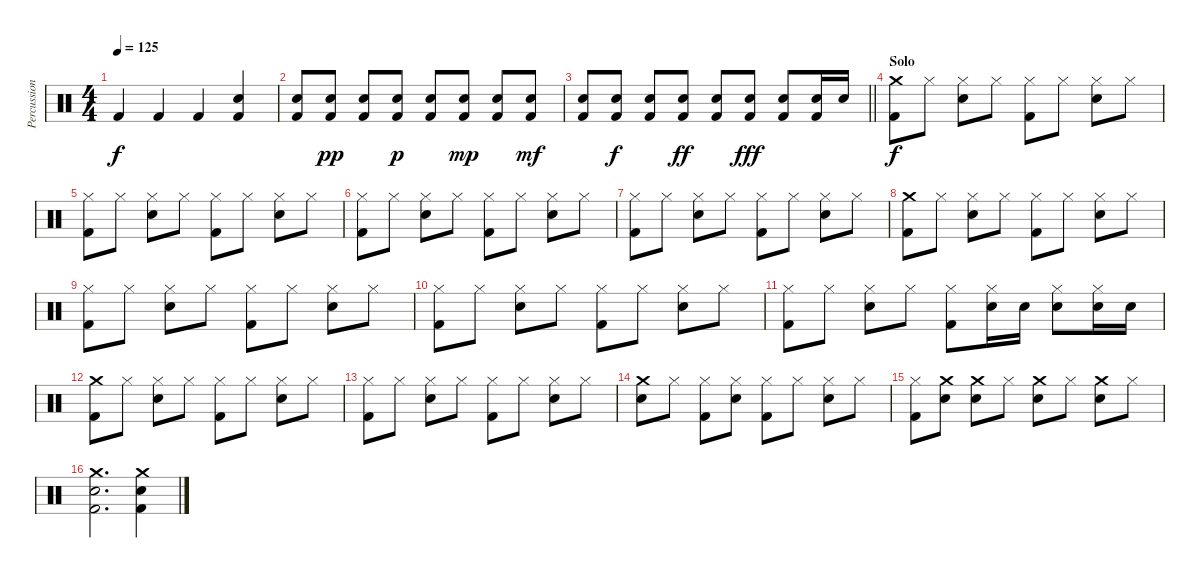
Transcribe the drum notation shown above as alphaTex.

\track ("Percussion" "Percussion") {instrument percussion}
\staff {score}
\articulation defaults
\ts (4 4)
\tempo 125
\clef neutral
\ks c "Kick (hit) 2".4{dy f} "Kick (hit) 2".4 "Kick (hit) 2".4
("Snare (hit) 2" "Kick (hit) 2").4 |
("Snare (hit) 2" "Kick (hit) 2").8 ("Snare (hit) 2" "Kick (hit) 2").8{dy pp} ("Snare (hit) 2" "Kick (hit) 2").8 ("Snare (hit) 2" "Kick (hit) 2").8{dy p} ("Snare (hit) 2" "Kick (hit) 2").8 ("Snare (hit) 2" "Kick (hit) 2").8{dy mp} ("Snare (hit) 2" "Kick (hit) 2").8 ("Snare (hit) 2" "Kick (hit) 2").8{dy mf} |
\barLineRight lightlight
("Snare (hit) 2" "Kick (hit) 2").8 ("Snare (hit) 2" "Kick (hit) 2").8{dy f} ("Snare (hit) 2" "Kick (hit) 2").8 ("Snare (hit) 2" "Kick (hit) 2").8{dy ff} ("Snare (hit) 2" "Kick (hit) 2").8 ("Snare (hit) 2" "Kick (hit) 2").8{dy fff} ("Snare (hit) 2" "Kick (hit) 2").8 ("Snare (hit) 2" "Kick (hit) 2").16 "Snare (hit) 2".16 |
\section ("" "Solo")
("Crash medium (hit)" "Kick (hit) 2").8{dy f} "Hi-Hat (closed)".8 ("Hi-Hat (closed)" "Snare (hit) 2").8 "Hi-Hat (closed)".8 ("Hi-Hat (closed)" "Kick (hit) 2").8 "Hi-Hat (closed)".8 ("Hi-Hat (closed)" "Snare (hit) 2").8 "Hi-Hat (closed)".8 |
("Hi-Hat (closed)" "Kick (hit) 2").8 "Hi-Hat (closed)".8 ("Hi-Hat (closed)" "Snare (hit) 2").8 "Hi-Hat (closed)".8 ("Hi-Hat (closed)" "Kick (hit) 2").8 "Hi-Hat (closed)".8 ("Hi-Hat (closed)" "Snare (hit) 2").8 "Hi-Hat (closed)".8 |
("Hi-Hat (closed)" "Kick (hit) 2").8 "Hi-Hat (closed)".8 ("Hi-Hat (closed)" "Snare (hit) 2").8 "Hi-Hat (closed)".8 ("Hi-Hat (closed)" "Kick (hit) 2").8 "Hi-Hat (closed)".8 ("Hi-Hat (closed)" "Snare (hit) 2").8 "Hi-Hat (closed)".8 |
("Hi-Hat (closed)" "Kick (hit) 2").8 "Hi-Hat (closed)".8 ("Hi-Hat (closed)" "Snare (hit) 2").8 "Hi-Hat (closed)".8 ("Hi-Hat (closed)" "Kick (hit) 2").8 "Hi-Hat (closed)".8 ("Hi-Hat (closed)" "Snare (hit) 2").8 "Hi-Hat (closed)".8 |
("Crash medium (hit)" "Kick (hit) 2").8 "Hi-Hat (closed)".8 ("Hi-Hat (closed)" "Snare (hit) 2").8 "Hi-Hat (closed)".8 ("Hi-Hat (closed)" "Kick (hit) 2").8 "Hi-Hat (closed)".8 ("Hi-Hat (closed)" "Snare (hit) 2").8 "Hi-Hat (closed)".8 |
("Hi-Hat (closed)" "Kick (hit) 2").8 "Hi-Hat (closed)".8 ("Hi-Hat (closed)" "Snare (hit) 2").8 "Hi-Hat (closed)".8 ("Hi-Hat (closed)" "Kick (hit) 2").8 "Hi-Hat (closed)".8 ("Hi-Hat (closed)" "Snare (hit) 2").8 "Hi-Hat (closed)".8 |
("Hi-Hat (closed)" "Kick (hit) 2").8 "Hi-Hat (closed)".8 ("Hi-Hat (closed)" "Snare (hit) 2").8 "Hi-Hat (closed)".8 ("Hi-Hat (closed)" "Kick (hit) 2").8 "Hi-Hat (closed)".8 ("Hi-Hat (closed)" "Snare (hit) 2").8 "Hi-Hat (closed)".8 |
("Hi-Hat (closed)" "Kick (hit) 2").8 "Hi-Hat (closed)".8 ("Hi-Hat (closed)" "Snare (hit) 2").8 "Hi-Hat (closed)".8 ("Hi-Hat (closed)" "Kick (hit) 2").8 ("Hi-Hat (closed)" "Snare (hit) 2").16 "Snare (hit) 2".16 ("Hi-Hat (closed)" "Snare (hit) 2").8 ("Hi-Hat (closed)" "Snare (hit) 2").16 "Snare (hit) 2".16 |
("Crash medium (hit)" "Kick (hit) 2").8 "Hi-Hat (closed)".8 ("Hi-Hat (closed)" "Snare (hit) 2").8 "Hi-Hat (closed)".8 ("Hi-Hat (closed)" "Kick (hit) 2").8 "Hi-Hat (closed)".8 ("Hi-Hat (closed)" "Snare (hit) 2").8 "Hi-Hat (closed)".8 |
("Hi-Hat (closed)" "Kick (hit) 2").8 "Hi-Hat (closed)".8 ("Hi-Hat (closed)" "Snare (hit) 2").8 "Hi-Hat (closed)".8 ("Hi-Hat (closed)" "Kick (hit) 2").8 "Hi-Hat (closed)".8 ("Hi-Hat (closed)" "Snare (hit) 2").8 "Hi-Hat (closed)".8 |
("Crash medium (hit)" "Snare (hit) 2").8 "Hi-Hat (closed)".8 ("Hi-Hat (closed)" "Kick (hit) 2").8 ("Hi-Hat (closed)" "Snare (hit) 2").8 ("Hi-Hat (closed)" "Kick (hit) 2").8 "Hi-Hat (closed)".8 ("Hi-Hat (closed)" "Snare (hit) 2").8 "Hi-Hat (closed)".8 |
("Hi-Hat (closed)" "Kick (hit) 2").8 ("Crash medium (hit)" "Snare (hit) 2").8 ("Crash medium (hit)" "Snare (hit) 2").8 "Hi-Hat (closed)".8 ("Crash medium (hit)" "Snare (hit) 2").8 "Hi-Hat (closed)".8 ("Crash medium (hit)" "Snare (hit) 2").8 "Hi-Hat (closed)".8 |
("Crash medium (hit)" "Snare (hit) 2" "Kick (hit) 2").2{d} ("Crash medium (hit)" "Snare (hit) 2" "Kick (hit) 2").4
